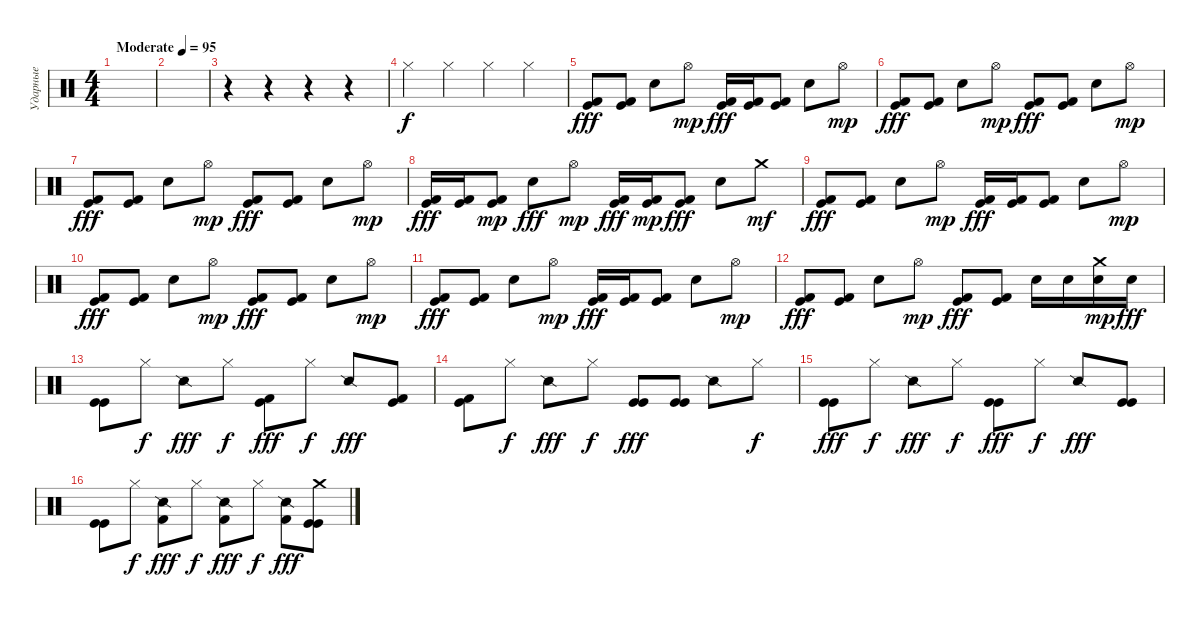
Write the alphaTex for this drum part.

\track ("Ударные" "Ударные") {instrument percussion}
\staff {score}
\articulation defaults
\ts (4 4)
\tempo (95 "Moderate")
\clef neutral
\ks c
|
|
r.4 r.4 r.4 r.4 |
"Hi-Hat (closed)".4 "Hi-Hat (closed)".4 "Hi-Hat (closed)".4 "Hi-Hat (closed)".4 |
("Kick (hit) 2" "Kick (hit)").8{dy fff} ("Kick (hit) 2" "Kick (hit)").8 "Snare (hit) 2".8 "Hi-Hat (open)".8{dy mp} ("Kick (hit) 2" "Kick (hit)").16{dy fff} ("Kick (hit) 2" "Kick (hit)").16 ("Kick (hit) 2" "Kick (hit)").8 "Snare (hit) 2".8 "Hi-Hat (open)".8{dy mp} |
("Kick (hit) 2" "Kick (hit)").8{dy fff} ("Kick (hit) 2" "Kick (hit)").8 "Snare (hit) 2".8 "Hi-Hat (open)".8{dy mp} ("Kick (hit) 2" "Kick (hit)").8{dy fff} ("Kick (hit) 2" "Kick (hit)").8 "Snare (hit) 2".8 "Hi-Hat (open)".8{dy mp} |
("Kick (hit) 2" "Kick (hit)").8{dy fff} ("Kick (hit) 2" "Kick (hit)").8 "Snare (hit) 2".8 "Hi-Hat (open)".8{dy mp} ("Kick (hit) 2" "Kick (hit)").8{dy fff} ("Kick (hit) 2" "Kick (hit)").8 "Snare (hit) 2".8 "Hi-Hat (open)".8{dy mp} |
("Kick (hit) 2" "Kick (hit)").16{dy fff} ("Kick (hit) 2" "Kick (hit)").16 ("Kick (hit) 2" "Kick (hit)").8{dy mp} "Snare (hit) 2".8{dy fff} "Hi-Hat (open)".8{dy mp} ("Kick (hit) 2" "Kick (hit)").16{dy fff} ("Kick (hit) 2" "Kick (hit)").16{dy mp} ("Kick (hit) 2" "Kick (hit)").8{dy fff} "Snare (hit) 2".8 "Crash medium (hit)".8{dy mf} |
("Kick (hit) 2" "Kick (hit)").8{dy fff} ("Kick (hit) 2" "Kick (hit)").8 "Snare (hit) 2".8 "Hi-Hat (open)".8{dy mp} ("Kick (hit) 2" "Kick (hit)").16{dy fff} ("Kick (hit) 2" "Kick (hit)").16 ("Kick (hit) 2" "Kick (hit)").8 "Snare (hit) 2".8 "Hi-Hat (open)".8{dy mp} |
("Kick (hit) 2" "Kick (hit)").8{dy fff} ("Kick (hit) 2" "Kick (hit)").8 "Snare (hit) 2".8 "Hi-Hat (open)".8{dy mp} ("Kick (hit) 2" "Kick (hit)").8{dy fff} ("Kick (hit) 2" "Kick (hit)").8 "Snare (hit) 2".8 "Hi-Hat (open)".8{dy mp} |
("Kick (hit) 2" "Kick (hit)").8{dy fff} ("Kick (hit) 2" "Kick (hit)").8 "Snare (hit) 2".8 "Hi-Hat (open)".8{dy mp} ("Kick (hit) 2" "Kick (hit)").16{dy fff} ("Kick (hit) 2" "Kick (hit)").16 ("Kick (hit) 2" "Kick (hit)").8 "Snare (hit) 2".8 "Hi-Hat (open)".8{dy mp} |
("Kick (hit) 2" "Kick (hit)").8{dy fff} ("Kick (hit) 2" "Kick (hit)").8 "Snare (hit) 2".8 "Hi-Hat (open)".8{dy mp} ("Kick (hit) 2" "Kick (hit)").8{dy fff} ("Kick (hit) 2" "Kick (hit)").8 "Snare (hit) 2".16 "Snare (hit) 2".16 ("Snare (hit) 2" "Crash medium (hit)").16{dy mp} "Snare (hit) 2".16{dy fff} |
("Kick (hit)" "Kick (hit)").8 "Hi-Hat (closed)".8{dy f} "Snare (side stick) 2".8{dy fff} "Hi-Hat (closed)".8{dy f} ("Kick (hit)" "Kick (hit) 2").8{dy fff} "Hi-Hat (closed)".8{dy f} "Snare (side stick) 2".8{dy fff} ("Kick (hit) 2" "Kick (hit)").8 |
("Kick (hit)" "Kick (hit) 2").8 "Hi-Hat (closed)".8{dy f} "Snare (side stick) 2".8{dy fff} "Hi-Hat (closed)".8{dy f} ("Kick (hit)" "Kick (hit)").8{dy fff} ("Kick (hit)" "Kick (hit)").8 "Snare (side stick) 2".8 "Hi-Hat (closed)".8{dy f} |
("Kick (hit)" "Kick (hit)").8{dy fff} "Hi-Hat (closed)".8{dy f} "Snare (side stick) 2".8{dy fff} "Hi-Hat (closed)".8{dy f} ("Kick (hit)" "Kick (hit)").8{dy fff} "Hi-Hat (closed)".8{dy f} "Snare (side stick) 2".8{dy fff} ("Kick (hit)" "Kick (hit)").8 |
("Kick (hit)" "Kick (hit)").8 "Hi-Hat (closed)".8{dy f} ("Snare (side stick) 2" "Kick (hit) 2").8{dy fff} "Hi-Hat (closed)".8{dy f} ("Snare (side stick) 2" "Kick (hit) 2").8{dy fff} "Hi-Hat (closed)".8{dy f} ("Snare (side stick) 2" "Kick (hit) 2").8{dy fff} ("Crash medium (hit)" "Kick (hit)" "Kick (hit)").8
